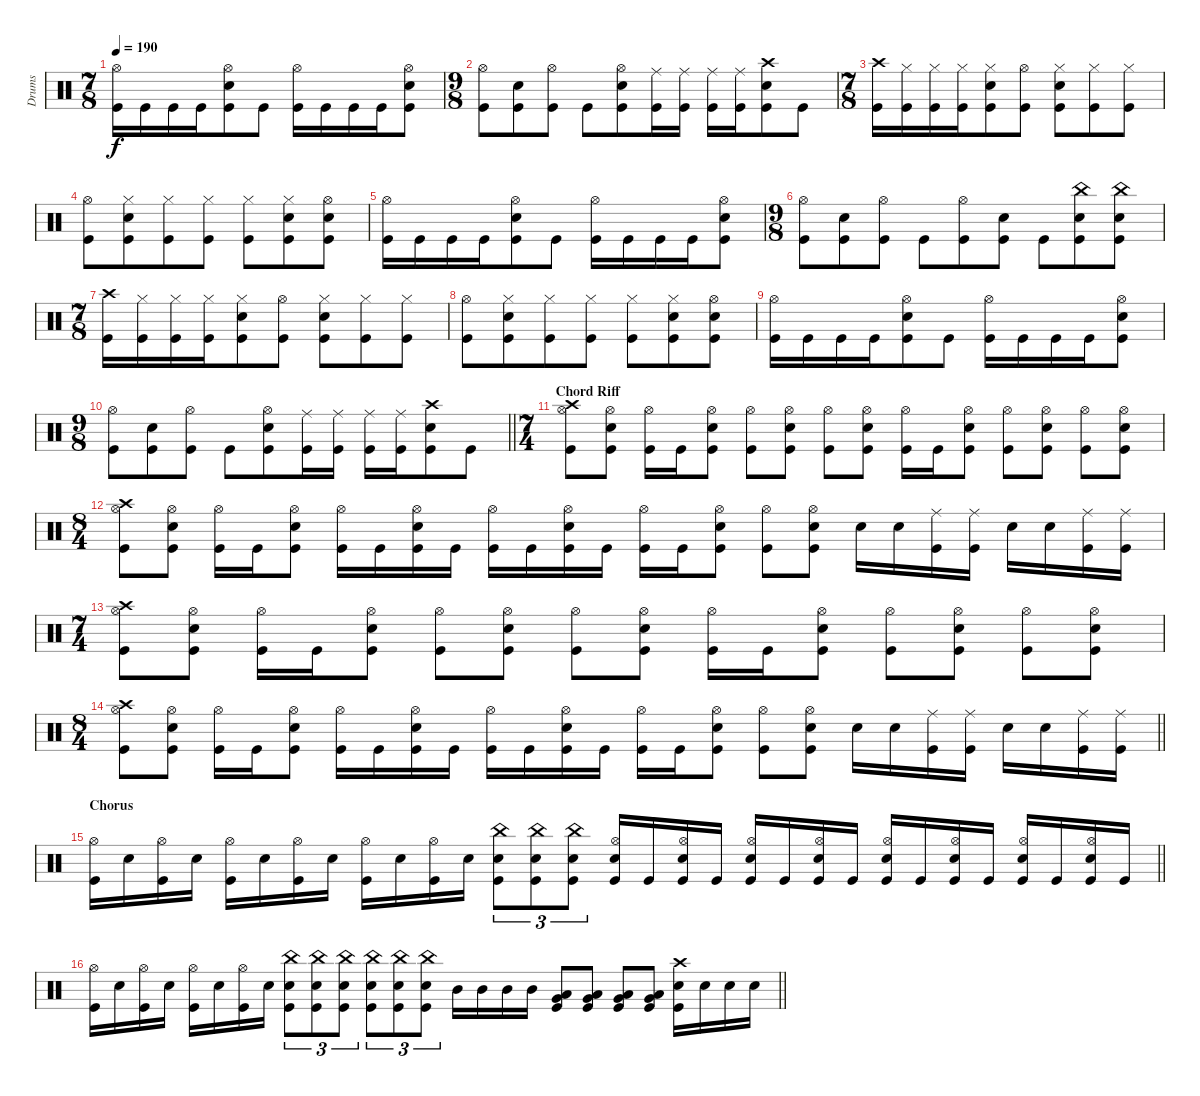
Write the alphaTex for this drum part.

\track ("Drums" "Drums") {instrument percussion}
\staff {score}
\articulation defaults
\ts (7 8)
\tempo 190
\clef neutral
\ks c
("Kick (hit)" "Hi-Hat (open)").16{dy f} "Kick (hit)".16 "Kick (hit)".16 "Kick (hit)".16 ("Kick (hit)" "Snare (hit) 2" "Hi-Hat (open)").8 "Kick (hit)".8 ("Kick (hit)" "Hi-Hat (open)").16 "Kick (hit)".16 "Kick (hit)".16 "Kick (hit)".16 ("Kick (hit)" "Snare (hit) 2" "Hi-Hat (open)").8 |
\ts (9 8)
("Kick (hit)" "Hi-Hat (open)").8 ("Kick (hit)" "Snare (hit) 2").8 ("Kick (hit)" "Hi-Hat (open)").8 "Kick (hit)".8 ("Kick (hit)" "Hi-Hat (open)" "Snare (hit) 2").8 ("Kick (hit)" "Ride (middle)").16 ("Kick (hit)" "Ride (middle)").16 ("Kick (hit)" "Ride (middle)").16 ("Kick (hit)" "Ride (middle)").16 ("Kick (hit)" "Crash high (hit)" "Snare (hit) 2").8 "Kick (hit)".8 |
\ts (7 8)
("Kick (hit)" "Crash high (hit)").16 ("Kick (hit)" "Hi-Hat (closed)").16 ("Kick (hit)" "Hi-Hat (closed)").16 ("Kick (hit)" "Hi-Hat (closed)").16 ("Kick (hit)" "Snare (hit) 2" "Hi-Hat (closed)").8 ("Kick (hit)" "Hi-Hat (open)").8 ("Kick (hit)" "Snare (hit) 2" "Hi-Hat (closed)").8 ("Hi-Hat (closed)" "Kick (hit)").8 ("Kick (hit)" "Hi-Hat (closed)").8 |
("Kick (hit)" "Hi-Hat (open)").8 ("Kick (hit)" "Snare (hit) 2" "Hi-Hat (closed)").8 ("Kick (hit)" "Hi-Hat (closed)").8 ("Kick (hit)" "Hi-Hat (closed)").8 ("Kick (hit)" "Hi-Hat (closed)").8 ("Kick (hit)" "Snare (hit) 2" "Hi-Hat (closed)").8 ("Kick (hit)" "Snare (hit) 2" "Hi-Hat (open)").8 |
("Kick (hit)" "Hi-Hat (open)").16 "Kick (hit)".16 "Kick (hit)".16 "Kick (hit)".16 ("Kick (hit)" "Snare (hit) 2" "Hi-Hat (open)").8 "Kick (hit)".8 ("Kick (hit)" "Hi-Hat (open)").16 "Kick (hit)".16 "Kick (hit)".16 "Kick (hit)".16 ("Kick (hit)" "Snare (hit) 2" "Hi-Hat (open)").8 |
\ts (9 8)
("Kick (hit)" "Hi-Hat (open)").8 ("Kick (hit)" "Snare (hit) 2").8 ("Kick (hit)" "Hi-Hat (open)").8 "Kick (hit)".8 ("Kick (hit)" "Hi-Hat (open)").8 ("Kick (hit)" "Snare (hit) 2").8 "Kick (hit)".8 ("Kick (hit)" "Snare (hit) 2" "China (hit)").8 ("Kick (hit)" "China (hit)" "Snare (hit) 2").8 |
\ts (7 8)
("Kick (hit)" "Crash high (hit)").16 ("Kick (hit)" "Hi-Hat (closed)").16 ("Kick (hit)" "Hi-Hat (closed)").16 ("Kick (hit)" "Hi-Hat (closed)").16 ("Kick (hit)" "Snare (hit) 2" "Hi-Hat (closed)").8 ("Kick (hit)" "Hi-Hat (open)").8 ("Kick (hit)" "Snare (hit) 2" "Hi-Hat (closed)").8 ("Hi-Hat (closed)" "Kick (hit)").8 ("Kick (hit)" "Hi-Hat (closed)").8 |
("Kick (hit)" "Hi-Hat (open)").8 ("Kick (hit)" "Snare (hit) 2" "Hi-Hat (closed)").8 ("Kick (hit)" "Hi-Hat (closed)").8 ("Kick (hit)" "Hi-Hat (closed)").8 ("Kick (hit)" "Hi-Hat (closed)").8 ("Kick (hit)" "Snare (hit) 2" "Hi-Hat (closed)").8 ("Kick (hit)" "Snare (hit) 2" "Hi-Hat (open)").8 |
("Kick (hit)" "Hi-Hat (open)").16 "Kick (hit)".16 "Kick (hit)".16 "Kick (hit)".16 ("Kick (hit)" "Snare (hit) 2" "Hi-Hat (open)").8 "Kick (hit)".8 ("Kick (hit)" "Hi-Hat (open)").16 "Kick (hit)".16 "Kick (hit)".16 "Kick (hit)".16 ("Kick (hit)" "Snare (hit) 2" "Hi-Hat (open)").8 |
\ts (9 8)
\barLineRight lightlight
("Kick (hit)" "Hi-Hat (open)").8 ("Kick (hit)" "Snare (hit) 2").8 ("Kick (hit)" "Hi-Hat (open)").8 "Kick (hit)".8 ("Kick (hit)" "Hi-Hat (open)" "Snare (hit) 2").8 ("Kick (hit)" "Ride (middle)").16 ("Kick (hit)" "Ride (middle)").16 ("Kick (hit)" "Ride (middle)").16 ("Kick (hit)" "Ride (middle)").16 ("Kick (hit)" "Crash high (hit)" "Snare (hit) 2").8 "Kick (hit)".8 |
\ts (7 4)
\section ("" "Chord Riff")
("Kick (hit)" "Hi-Hat (open)" "Crash high (hit)").8 ("Kick (hit)" "Hi-Hat (open)" "Snare (hit) 2").8 ("Kick (hit)" "Hi-Hat (open)").16 "Kick (hit)".16 ("Kick (hit)" "Hi-Hat (open)" "Snare (hit) 2").8 ("Hi-Hat (open)" "Kick (hit)").8 ("Kick (hit)" "Hi-Hat (open)" "Snare (hit) 2").8 ("Kick (hit)" "Hi-Hat (open)").8 ("Kick (hit)" "Hi-Hat (open)" "Snare (hit) 2").8 ("Kick (hit)" "Hi-Hat (open)").16 "Kick (hit)".16 ("Kick (hit)" "Hi-Hat (open)" "Snare (hit) 2").8 ("Kick (hit)" "Hi-Hat (open)").8 ("Kick (hit)" "Hi-Hat (open)" "Snare (hit) 2").8 ("Kick (hit)" "Hi-Hat (open)").8 ("Kick (hit)" "Hi-Hat (open)" "Snare (hit) 2").8 |
\ts (8 4)
("Kick (hit)" "Hi-Hat (open)" "Crash high (hit)").8 ("Kick (hit)" "Hi-Hat (open)" "Snare (hit) 2").8 ("Kick (hit)" "Hi-Hat (open)").16 "Kick (hit)".16 ("Kick (hit)" "Hi-Hat (open)" "Snare (hit) 2").8 ("Kick (hit)" "Hi-Hat (open)").16 "Kick (hit)".16 ("Kick (hit)" "Snare (hit) 2" "Hi-Hat (open)").16 "Kick (hit)".16 ("Kick (hit)" "Hi-Hat (open)").16 "Kick (hit)".16 ("Kick (hit)" "Snare (hit) 2" "Hi-Hat (open)").16 "Kick (hit)".16 ("Kick (hit)" "Hi-Hat (open)").16 "Kick (hit)".16 ("Kick (hit)" "Hi-Hat (open)" "Snare (hit) 2").8 ("Kick (hit)" "Hi-Hat (open)").8 ("Kick (hit)" "Hi-Hat (open)" "Snare (hit) 2").8 "Snare (hit) 2".16 "Snare (hit) 2".16 ("Kick (hit)" "Ride (middle)").16 ("Kick (hit)" "Ride (middle)").16 "Snare (hit) 2".16 "Snare (hit) 2".16 ("Kick (hit)" "Ride (middle)").16 ("Kick (hit)" "Ride (middle)").16 |
\ts (7 4)
("Kick (hit)" "Hi-Hat (open)" "Crash high (hit)").8 ("Kick (hit)" "Hi-Hat (open)" "Snare (hit) 2").8 ("Kick (hit)" "Hi-Hat (open)").16 "Kick (hit)".16 ("Kick (hit)" "Hi-Hat (open)" "Snare (hit) 2").8 ("Hi-Hat (open)" "Kick (hit)").8 ("Kick (hit)" "Hi-Hat (open)" "Snare (hit) 2").8 ("Kick (hit)" "Hi-Hat (open)").8 ("Kick (hit)" "Hi-Hat (open)" "Snare (hit) 2").8 ("Kick (hit)" "Hi-Hat (open)").16 "Kick (hit)".16 ("Kick (hit)" "Hi-Hat (open)" "Snare (hit) 2").8 ("Kick (hit)" "Hi-Hat (open)").8 ("Kick (hit)" "Hi-Hat (open)" "Snare (hit) 2").8 ("Kick (hit)" "Hi-Hat (open)").8 ("Kick (hit)" "Hi-Hat (open)" "Snare (hit) 2").8 |
\ts (8 4)
\barLineRight lightlight
("Kick (hit)" "Hi-Hat (open)" "Crash high (hit)").8 ("Kick (hit)" "Hi-Hat (open)" "Snare (hit) 2").8 ("Kick (hit)" "Hi-Hat (open)").16 "Kick (hit)".16 ("Kick (hit)" "Hi-Hat (open)" "Snare (hit) 2").8 ("Kick (hit)" "Hi-Hat (open)").16 "Kick (hit)".16 ("Kick (hit)" "Snare (hit) 2" "Hi-Hat (open)").16 "Kick (hit)".16 ("Kick (hit)" "Hi-Hat (open)").16 "Kick (hit)".16 ("Kick (hit)" "Snare (hit) 2" "Hi-Hat (open)").16 "Kick (hit)".16 ("Kick (hit)" "Hi-Hat (open)").16 "Kick (hit)".16 ("Kick (hit)" "Hi-Hat (open)" "Snare (hit) 2").8 ("Kick (hit)" "Hi-Hat (open)").8 ("Kick (hit)" "Hi-Hat (open)" "Snare (hit) 2").8 "Snare (hit) 2".16 "Snare (hit) 2".16 ("Kick (hit)" "Ride (middle)").16 ("Kick (hit)" "Ride (middle)").16 "Snare (hit) 2".16 "Snare (hit) 2".16 ("Kick (hit)" "Ride (middle)").16 ("Kick (hit)" "Ride (middle)").16 |
\section ("" "Chorus")
\barLineRight lightlight
("Hi-Hat (open)" "Kick (hit)").16 "Snare (hit) 2".16 ("Kick (hit)" "Hi-Hat (open)").16 "Snare (hit) 2".16 ("Kick (hit)" "Hi-Hat (open)").16 "Snare (hit) 2".16 ("Kick (hit)" "Hi-Hat (open)").16 "Snare (hit) 2".16 ("Kick (hit)" "Hi-Hat (open)").16 "Snare (hit) 2".16 ("Kick (hit)" "Hi-Hat (open)").16 "Snare (hit) 2".16 ("Kick (hit)" "Snare (hit) 2" "China (hit)").8{tu (3 2)} ("Kick (hit)" "Snare (hit) 2" "China (hit)").8{tu (3 2)} ("Kick (hit)" "Snare (hit) 2" "China (hit)").8{tu (3 2)} ("Kick (hit)" "Snare (hit) 2" "Hi-Hat (open)").16 "Kick (hit)".16 ("Kick (hit)" "Snare (hit) 2" "Hi-Hat (open)").16 "Kick (hit)".16 ("Kick (hit)" "Snare (hit) 2" "Hi-Hat (open)").16 "Kick (hit)".16 ("Kick (hit)" "Snare (hit) 2" "Hi-Hat (open)").16 "Kick (hit)".16 ("Kick (hit)" "Snare (hit) 2" "Hi-Hat (open)").16 "Kick (hit)".16 ("Kick (hit)" "Snare (hit) 2" "Hi-Hat (open)").16 "Kick (hit)".16 ("Kick (hit)" "Snare (hit) 2" "Hi-Hat (open)").16 "Kick (hit)".16 ("Kick (hit)" "Snare (hit) 2" "Hi-Hat (open)").16 "Kick (hit)".16 |
\barLineRight lightlight
("Hi-Hat (open)" "Kick (hit)").16 "Snare (hit) 2".16 ("Kick (hit)" "Hi-Hat (open)").16 "Snare (hit) 2".16 ("Kick (hit)" "Hi-Hat (open)").16 "Snare (hit) 2".16 ("Kick (hit)" "Hi-Hat (open)").16 "Snare (hit) 2".16 ("Kick (hit)" "Snare (hit) 2" "China (hit)").8{tu (3 2)} ("Kick (hit)" "Snare (hit) 2" "China (hit)").8{tu (3 2)} ("Kick (hit)" "Snare (hit) 2" "China (hit)").8{tu (3 2)} ("Kick (hit)" "Snare (hit) 2" "China (hit)").8{tu (3 2)} ("Kick (hit)" "Snare (hit) 2" "China (hit)").8{tu (3 2)} ("Kick (hit)" "Snare (hit) 2" "China (hit)").8{tu (3 2)} "Mid Tom (hit)".16 "Mid Tom (hit)".16 "Mid Tom (hit)".16 "Mid Tom (hit)".16 ("Kick (hit)" "Low Tom (hit)" "Very Low Tom (hit)").8 ("Kick (hit)" "Low Tom (hit)" "Very Low Tom (hit)").8 ("Kick (hit)" "Very Low Tom (hit)" "Low Floor Tom (hit)").8 ("Kick (hit)" "Very Low Tom (hit)" "Low Floor Tom (hit)").8 ("Kick (hit)" "Crash high (hit)" "Snare (hit) 2").16 "Snare (hit) 2".16 "Snare (hit) 2".16 "Snare (hit) 2".16
